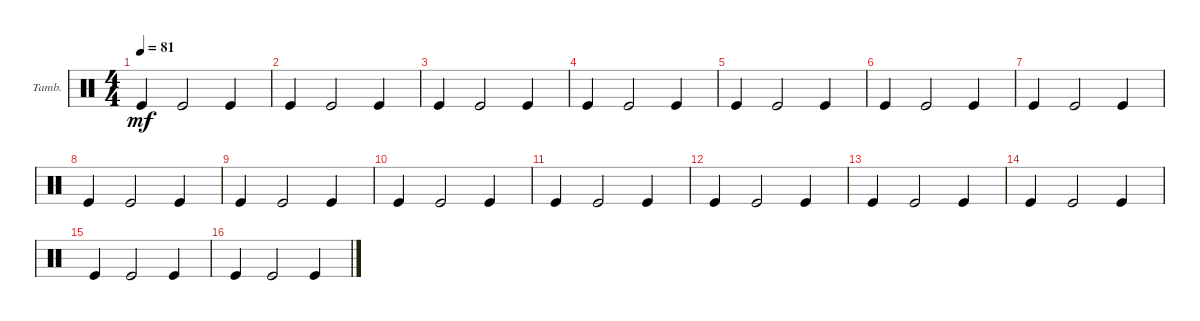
\bracketExtendMode groupsimilarinstruments
\firstSystemTrackNameOrientation horizontal
\otherSystemsTrackNameOrientation horizontal
\track ("Tambourine" "Tamb.") {instrument percussion}
\staff {score}
\articulation defaults
\ts (4 4)
\tempo 81
\clef neutral
\ks c "Kick (hit)".4{dy mf} "Kick (hit)".2 "Kick (hit)".4
|
"Kick (hit)".4 "Kick (hit)".2 "Kick (hit)".4 |
"Kick (hit)".4 "Kick (hit)".2 "Kick (hit)".4 |
"Kick (hit)".4 "Kick (hit)".2 "Kick (hit)".4 |
"Kick (hit)".4 "Kick (hit)".2 "Kick (hit)".4 |
"Kick (hit)".4 "Kick (hit)".2 "Kick (hit)".4 |
"Kick (hit)".4 "Kick (hit)".2 "Kick (hit)".4 |
"Kick (hit)".4 "Kick (hit)".2 "Kick (hit)".4 |
"Kick (hit)".4 "Kick (hit)".2 "Kick (hit)".4 |
"Kick (hit)".4 "Kick (hit)".2 "Kick (hit)".4 |
"Kick (hit)".4 "Kick (hit)".2 "Kick (hit)".4 |
"Kick (hit)".4 "Kick (hit)".2 "Kick (hit)".4 |
"Kick (hit)".4 "Kick (hit)".2 "Kick (hit)".4 |
"Kick (hit)".4 "Kick (hit)".2 "Kick (hit)".4 |
"Kick (hit)".4 "Kick (hit)".2 "Kick (hit)".4 |
"Kick (hit)".4 "Kick (hit)".2 "Kick (hit)".4
